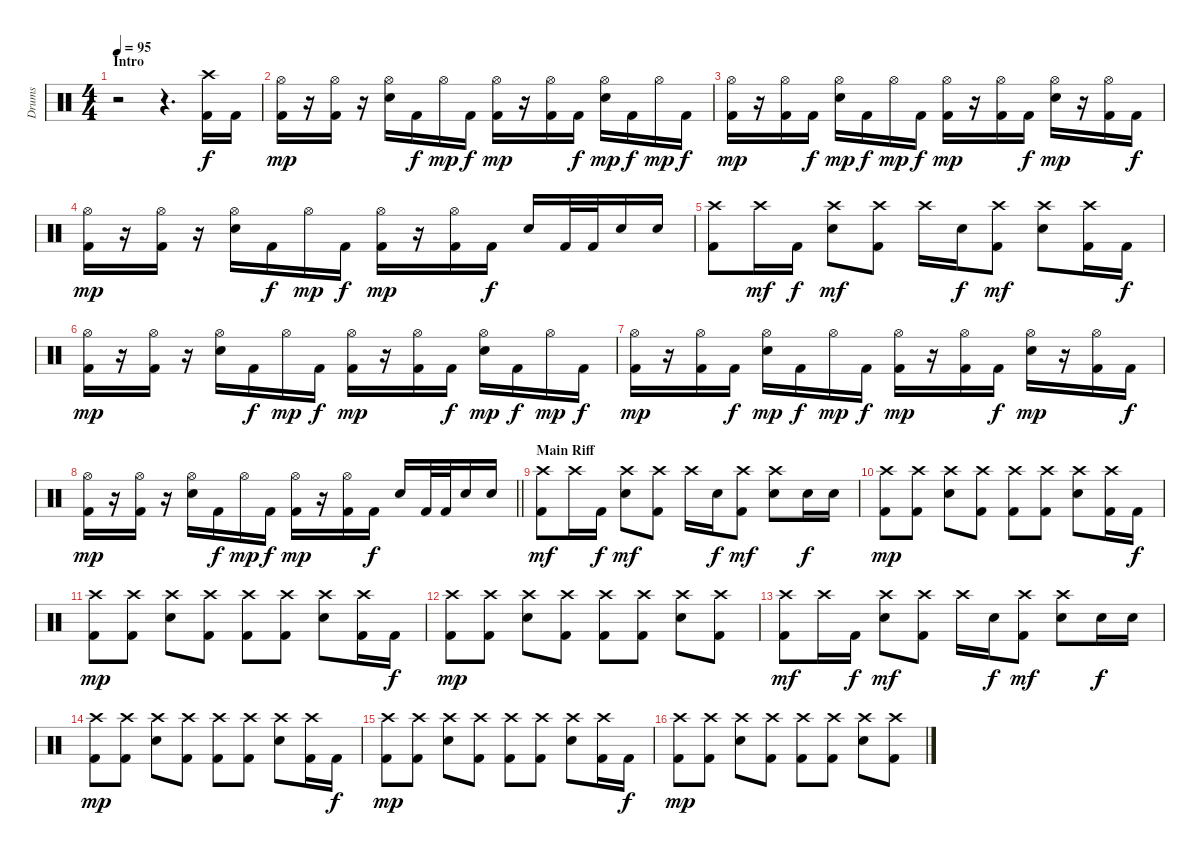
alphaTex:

\track ("Drums" "Drums") {instrument percussion}
\staff {score}
\articulation defaults
\ts (4 4)
\section ("" "Intro")
\tempo 95
\clef neutral
\ks c
r.2{dy f} r.4{d} ("Crash high (hit)" "Kick (hit) 2").16 "Kick (hit) 2".16 |
("Hi-Hat (open)" "Kick (hit) 2").16{dy mp} r.16 ("Hi-Hat (open)" "Kick (hit) 2").16 r.16 ("Hi-Hat (open)" "Electric Snare (hit)").16 "Kick (hit) 2".16{dy f} "Hi-Hat (open)".16{dy mp} "Kick (hit) 2".16{dy f} ("Hi-Hat (open)" "Kick (hit) 2").16{dy mp} r.16 ("Hi-Hat (open)" "Kick (hit) 2").16 "Kick (hit) 2".16{dy f} ("Hi-Hat (open)" "Electric Snare (hit)").16{dy mp} "Kick (hit) 2".16{dy f} "Hi-Hat (open)".16{dy mp} "Kick (hit) 2".16{dy f} |
("Hi-Hat (open)" "Kick (hit) 2").16{dy mp} r.16 ("Hi-Hat (open)" "Kick (hit) 2").16 "Kick (hit) 2".16{dy f} ("Hi-Hat (open)" "Electric Snare (hit)").16{dy mp} "Kick (hit) 2".16{dy f} "Hi-Hat (open)".16{dy mp} "Kick (hit) 2".16{dy f} ("Hi-Hat (open)" "Kick (hit) 2").16{dy mp} r.16 ("Hi-Hat (open)" "Kick (hit) 2").16 "Kick (hit) 2".16{dy f} ("Hi-Hat (open)" "Electric Snare (hit)").16{dy mp} r.16 ("Hi-Hat (open)" "Kick (hit) 2").16 "Kick (hit) 2".16{dy f} |
("Hi-Hat (open)" "Kick (hit) 2").16{dy mp} r.16 ("Hi-Hat (open)" "Kick (hit) 2").16 r.16 ("Hi-Hat (open)" "Electric Snare (hit)").16 "Kick (hit) 2".16{dy f} "Hi-Hat (open)".16{dy mp} "Kick (hit) 2".16{dy f} ("Hi-Hat (open)" "Kick (hit) 2").16{dy mp} r.16 ("Hi-Hat (open)" "Kick (hit) 2").16 "Kick (hit) 2".16{dy f} "Electric Snare (hit)".16 "Kick (hit) 2".32 "Kick (hit) 2".32 "Electric Snare (hit)".16 "Electric Snare (hit)".16 |
("Crash high (hit)" "Kick (hit) 2").8 "Crash high (hit)".16{dy mf} "Kick (hit) 2".16{dy f} ("Crash high (hit)" "Electric Snare (hit)").8{dy mf} ("Crash high (hit)" "Kick (hit) 2").8 "Crash high (hit)".16 "Electric Snare (hit)".16{dy f} ("Crash high (hit)" "Kick (hit) 2").8{dy mf} ("Crash high (hit)" "Electric Snare (hit)").8 ("Crash high (hit)" "Kick (hit) 2").16 "Kick (hit) 2".16{dy f} |
("Hi-Hat (open)" "Kick (hit) 2").16{dy mp} r.16 ("Hi-Hat (open)" "Kick (hit) 2").16 r.16 ("Hi-Hat (open)" "Electric Snare (hit)").16 "Kick (hit) 2".16{dy f} "Hi-Hat (open)".16{dy mp} "Kick (hit) 2".16{dy f} ("Hi-Hat (open)" "Kick (hit) 2").16{dy mp} r.16 ("Hi-Hat (open)" "Kick (hit) 2").16 "Kick (hit) 2".16{dy f} ("Hi-Hat (open)" "Electric Snare (hit)").16{dy mp} "Kick (hit) 2".16{dy f} "Hi-Hat (open)".16{dy mp} "Kick (hit) 2".16{dy f} |
("Hi-Hat (open)" "Kick (hit) 2").16{dy mp} r.16 ("Hi-Hat (open)" "Kick (hit) 2").16 "Kick (hit) 2".16{dy f} ("Hi-Hat (open)" "Electric Snare (hit)").16{dy mp} "Kick (hit) 2".16{dy f} "Hi-Hat (open)".16{dy mp} "Kick (hit) 2".16{dy f} ("Hi-Hat (open)" "Kick (hit) 2").16{dy mp} r.16 ("Hi-Hat (open)" "Kick (hit) 2").16 "Kick (hit) 2".16{dy f} ("Hi-Hat (open)" "Electric Snare (hit)").16{dy mp} r.16 ("Hi-Hat (open)" "Kick (hit) 2").16 "Kick (hit) 2".16{dy f} |
\barLineRight lightlight
("Hi-Hat (open)" "Kick (hit) 2").16{dy mp} r.16 ("Hi-Hat (open)" "Kick (hit) 2").16 r.16 ("Hi-Hat (open)" "Electric Snare (hit)").16 "Kick (hit) 2".16{dy f} "Hi-Hat (open)".16{dy mp} "Kick (hit) 2".16{dy f} ("Hi-Hat (open)" "Kick (hit) 2").16{dy mp} r.16 ("Hi-Hat (open)" "Kick (hit) 2").16 "Kick (hit) 2".16{dy f} "Electric Snare (hit)".16 "Kick (hit) 2".32 "Kick (hit) 2".32 "Electric Snare (hit)".16 "Electric Snare (hit)".16 |
\section ("" "Main Riff")
("Crash high (hit)" "Kick (hit) 2").8{dy mf} "Crash high (hit)".16 "Kick (hit) 2".16{dy f} ("Crash high (hit)" "Electric Snare (hit)").8{dy mf} ("Crash high (hit)" "Kick (hit) 2").8 "Crash high (hit)".16 "Electric Snare (hit)".16{dy f} ("Crash high (hit)" "Kick (hit) 2").8{dy mf} ("Crash high (hit)" "Electric Snare (hit)").8 "Electric Snare (hit)".16{dy f} "Electric Snare (hit)".16 |
("Crash high (hit)" "Kick (hit) 2").8{dy mp} ("Crash high (hit)" "Kick (hit) 2").8 ("Crash high (hit)" "Electric Snare (hit)").8 ("Crash high (hit)" "Kick (hit) 2").8 ("Crash high (hit)" "Kick (hit) 2").8 ("Crash high (hit)" "Kick (hit) 2").8 ("Crash high (hit)" "Electric Snare (hit)").8 ("Crash high (hit)" "Kick (hit) 2").16 "Kick (hit) 2".16{dy f} |
("Crash high (hit)" "Kick (hit) 2").8{dy mp} ("Crash high (hit)" "Kick (hit) 2").8 ("Crash high (hit)" "Electric Snare (hit)").8 ("Crash high (hit)" "Kick (hit) 2").8 ("Crash high (hit)" "Kick (hit) 2").8 ("Crash high (hit)" "Kick (hit) 2").8 ("Crash high (hit)" "Electric Snare (hit)").8 ("Crash high (hit)" "Kick (hit) 2").16 "Kick (hit) 2".16{dy f} |
("Crash high (hit)" "Kick (hit) 2").8{dy mp} ("Crash high (hit)" "Kick (hit) 2").8 ("Crash high (hit)" "Electric Snare (hit)").8 ("Crash high (hit)" "Kick (hit) 2").8 ("Crash high (hit)" "Kick (hit) 2").8 ("Crash high (hit)" "Kick (hit) 2").8 ("Crash high (hit)" "Electric Snare (hit)").8 ("Crash high (hit)" "Kick (hit) 2").8 |
("Crash high (hit)" "Kick (hit) 2").8{dy mf} "Crash high (hit)".16 "Kick (hit) 2".16{dy f} ("Crash high (hit)" "Electric Snare (hit)").8{dy mf} ("Crash high (hit)" "Kick (hit) 2").8 "Crash high (hit)".16 "Electric Snare (hit)".16{dy f} ("Crash high (hit)" "Kick (hit) 2").8{dy mf} ("Crash high (hit)" "Electric Snare (hit)").8 "Electric Snare (hit)".16{dy f} "Electric Snare (hit)".16 |
("Crash high (hit)" "Kick (hit) 2").8{dy mp} ("Crash high (hit)" "Kick (hit) 2").8 ("Crash high (hit)" "Electric Snare (hit)").8 ("Crash high (hit)" "Kick (hit) 2").8 ("Crash high (hit)" "Kick (hit) 2").8 ("Crash high (hit)" "Kick (hit) 2").8 ("Crash high (hit)" "Electric Snare (hit)").8 ("Crash high (hit)" "Kick (hit) 2").16 "Kick (hit) 2".16{dy f} |
("Crash high (hit)" "Kick (hit) 2").8{dy mp} ("Crash high (hit)" "Kick (hit) 2").8 ("Crash high (hit)" "Electric Snare (hit)").8 ("Crash high (hit)" "Kick (hit) 2").8 ("Crash high (hit)" "Kick (hit) 2").8 ("Crash high (hit)" "Kick (hit) 2").8 ("Crash high (hit)" "Electric Snare (hit)").8 ("Crash high (hit)" "Kick (hit) 2").16 "Kick (hit) 2".16{dy f} |
("Crash high (hit)" "Kick (hit) 2").8{dy mp} ("Crash high (hit)" "Kick (hit) 2").8 ("Crash high (hit)" "Electric Snare (hit)").8 ("Crash high (hit)" "Kick (hit) 2").8 ("Crash high (hit)" "Kick (hit) 2").8 ("Crash high (hit)" "Kick (hit) 2").8 ("Crash high (hit)" "Electric Snare (hit)").8 ("Crash high (hit)" "Kick (hit) 2").8
